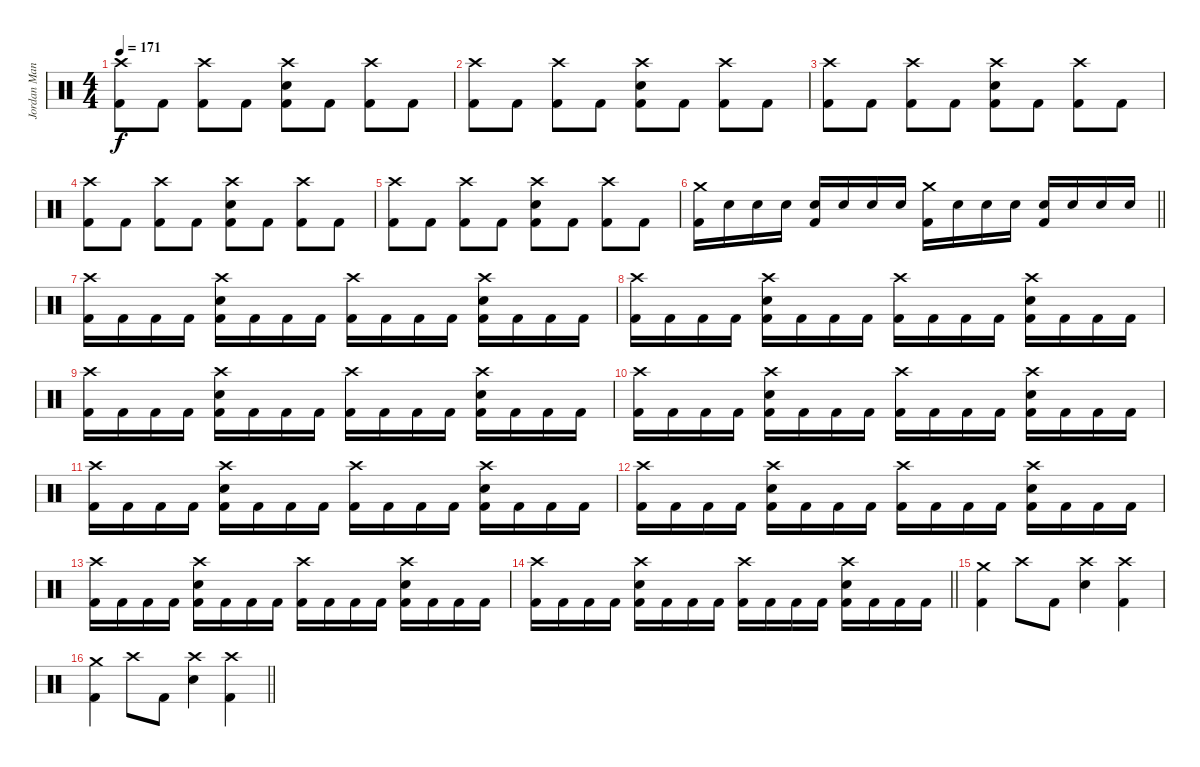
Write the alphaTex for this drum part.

\track ("Jordan Mancino" "Jordan Man") {instrument percussion}
\staff {score}
\articulation defaults
\ts (4 4)
\tempo 171
\clef neutral
\ks c
("Crash high (hit)" "Kick (hit) 2").8{dy f} "Kick (hit) 2".8 ("Crash high (hit)" "Kick (hit) 2").8 "Kick (hit) 2".8 ("Crash high (hit)" "Electric Snare (hit)" "Kick (hit) 2").8 "Kick (hit) 2".8 ("Crash high (hit)" "Kick (hit) 2").8 "Kick (hit) 2".8 |
("Crash high (hit)" "Kick (hit) 2").8 "Kick (hit) 2".8 ("Crash high (hit)" "Kick (hit) 2").8 "Kick (hit) 2".8 ("Crash high (hit)" "Electric Snare (hit)" "Kick (hit) 2").8 "Kick (hit) 2".8 ("Crash high (hit)" "Kick (hit) 2").8 "Kick (hit) 2".8 |
("Crash high (hit)" "Kick (hit) 2").8 "Kick (hit) 2".8 ("Crash high (hit)" "Kick (hit) 2").8 "Kick (hit) 2".8 ("Crash high (hit)" "Electric Snare (hit)" "Kick (hit) 2").8 "Kick (hit) 2".8 ("Crash high (hit)" "Kick (hit) 2").8 "Kick (hit) 2".8 |
("Crash high (hit)" "Kick (hit) 2").8 "Kick (hit) 2".8 ("Crash high (hit)" "Kick (hit) 2").8 "Kick (hit) 2".8 ("Crash high (hit)" "Electric Snare (hit)" "Kick (hit) 2").8 "Kick (hit) 2".8 ("Crash high (hit)" "Kick (hit) 2").8 "Kick (hit) 2".8 |
("Crash high (hit)" "Kick (hit) 2").8 "Kick (hit) 2".8 ("Crash high (hit)" "Kick (hit) 2").8 "Kick (hit) 2".8 ("Crash high (hit)" "Electric Snare (hit)" "Kick (hit) 2").8 "Kick (hit) 2".8 ("Crash high (hit)" "Kick (hit) 2").8 "Kick (hit) 2".8 |
\barLineRight lightlight
("Crash medium (hit)" "Kick (hit) 2").16 "Electric Snare (hit)".16 "Electric Snare (hit)".16 "Electric Snare (hit)".16 ("Electric Snare (hit)" "Kick (hit) 2").16 "Electric Snare (hit)".16 "Electric Snare (hit)".16 "Electric Snare (hit)".16 ("Crash medium (hit)" "Kick (hit) 2").16 "Electric Snare (hit)".16 "Electric Snare (hit)".16 "Electric Snare (hit)".16 ("Electric Snare (hit)" "Kick (hit) 2").16 "Electric Snare (hit)".16 "Electric Snare (hit)".16 "Electric Snare (hit)".16 |
\section ("" "")
("Crash high (hit)" "Kick (hit) 2").16 "Kick (hit) 2".16 "Kick (hit) 2".16 "Kick (hit) 2".16 ("Crash high (hit)" "Electric Snare (hit)" "Kick (hit) 2").16 "Kick (hit) 2".16 "Kick (hit) 2".16 "Kick (hit) 2".16 ("Crash high (hit)" "Kick (hit) 2").16 "Kick (hit) 2".16 "Kick (hit) 2".16 "Kick (hit) 2".16 ("Crash high (hit)" "Electric Snare (hit)" "Kick (hit) 2").16 "Kick (hit) 2".16 "Kick (hit) 2".16 "Kick (hit) 2".16 |
("Crash high (hit)" "Kick (hit) 2").16 "Kick (hit) 2".16 "Kick (hit) 2".16 "Kick (hit) 2".16 ("Crash high (hit)" "Electric Snare (hit)" "Kick (hit) 2").16 "Kick (hit) 2".16 "Kick (hit) 2".16 "Kick (hit) 2".16 ("Crash high (hit)" "Kick (hit) 2").16 "Kick (hit) 2".16 "Kick (hit) 2".16 "Kick (hit) 2".16 ("Crash high (hit)" "Electric Snare (hit)" "Kick (hit) 2").16 "Kick (hit) 2".16 "Kick (hit) 2".16 "Kick (hit) 2".16 |
("Crash high (hit)" "Kick (hit) 2").16 "Kick (hit) 2".16 "Kick (hit) 2".16 "Kick (hit) 2".16 ("Crash high (hit)" "Electric Snare (hit)" "Kick (hit) 2").16 "Kick (hit) 2".16 "Kick (hit) 2".16 "Kick (hit) 2".16 ("Crash high (hit)" "Kick (hit) 2").16 "Kick (hit) 2".16 "Kick (hit) 2".16 "Kick (hit) 2".16 ("Crash high (hit)" "Electric Snare (hit)" "Kick (hit) 2").16 "Kick (hit) 2".16 "Kick (hit) 2".16 "Kick (hit) 2".16 |
("Crash high (hit)" "Kick (hit) 2").16 "Kick (hit) 2".16 "Kick (hit) 2".16 "Kick (hit) 2".16 ("Crash high (hit)" "Electric Snare (hit)" "Kick (hit) 2").16 "Kick (hit) 2".16 "Kick (hit) 2".16 "Kick (hit) 2".16 ("Crash high (hit)" "Kick (hit) 2").16 "Kick (hit) 2".16 "Kick (hit) 2".16 "Kick (hit) 2".16 ("Crash high (hit)" "Electric Snare (hit)" "Kick (hit) 2").16 "Kick (hit) 2".16 "Kick (hit) 2".16 "Kick (hit) 2".16 |
("Crash high (hit)" "Kick (hit) 2").16 "Kick (hit) 2".16 "Kick (hit) 2".16 "Kick (hit) 2".16 ("Crash high (hit)" "Electric Snare (hit)" "Kick (hit) 2").16 "Kick (hit) 2".16 "Kick (hit) 2".16 "Kick (hit) 2".16 ("Crash high (hit)" "Kick (hit) 2").16 "Kick (hit) 2".16 "Kick (hit) 2".16 "Kick (hit) 2".16 ("Crash high (hit)" "Electric Snare (hit)" "Kick (hit) 2").16 "Kick (hit) 2".16 "Kick (hit) 2".16 "Kick (hit) 2".16 |
("Crash high (hit)" "Kick (hit) 2").16 "Kick (hit) 2".16 "Kick (hit) 2".16 "Kick (hit) 2".16 ("Crash high (hit)" "Electric Snare (hit)" "Kick (hit) 2").16 "Kick (hit) 2".16 "Kick (hit) 2".16 "Kick (hit) 2".16 ("Crash high (hit)" "Kick (hit) 2").16 "Kick (hit) 2".16 "Kick (hit) 2".16 "Kick (hit) 2".16 ("Crash high (hit)" "Electric Snare (hit)" "Kick (hit) 2").16 "Kick (hit) 2".16 "Kick (hit) 2".16 "Kick (hit) 2".16 |
("Crash high (hit)" "Kick (hit) 2").16 "Kick (hit) 2".16 "Kick (hit) 2".16 "Kick (hit) 2".16 ("Crash high (hit)" "Electric Snare (hit)" "Kick (hit) 2").16 "Kick (hit) 2".16 "Kick (hit) 2".16 "Kick (hit) 2".16 ("Crash high (hit)" "Kick (hit) 2").16 "Kick (hit) 2".16 "Kick (hit) 2".16 "Kick (hit) 2".16 ("Crash high (hit)" "Electric Snare (hit)" "Kick (hit) 2").16 "Kick (hit) 2".16 "Kick (hit) 2".16 "Kick (hit) 2".16 |
\barLineRight lightlight
("Crash high (hit)" "Kick (hit) 2").16 "Kick (hit) 2".16 "Kick (hit) 2".16 "Kick (hit) 2".16 ("Crash high (hit)" "Electric Snare (hit)" "Kick (hit) 2").16 "Kick (hit) 2".16 "Kick (hit) 2".16 "Kick (hit) 2".16 ("Crash high (hit)" "Kick (hit) 2").16 "Kick (hit) 2".16 "Kick (hit) 2".16 "Kick (hit) 2".16 ("Crash high (hit)" "Electric Snare (hit)" "Kick (hit) 2").16 "Kick (hit) 2".16 "Kick (hit) 2".16 "Kick (hit) 2".16 |
\section ("" "")
("Crash medium (hit)" "Kick (hit) 2").4 "Crash high (hit)".8 "Kick (hit) 2".8 ("Crash high (hit)" "Electric Snare (hit)").4 ("Crash high (hit)" "Kick (hit) 2").4 |
\barLineRight lightlight
("Crash medium (hit)" "Kick (hit) 2").4 "Crash high (hit)".8 "Kick (hit) 2".8 ("Crash high (hit)" "Electric Snare (hit)").4 ("Crash high (hit)" "Kick (hit) 2").4
